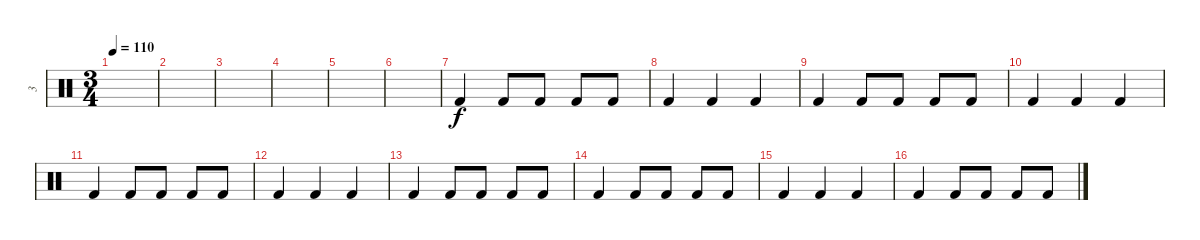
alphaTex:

\track ("3" "3") {instrument percussion}
\staff {score}
\articulation defaults
\ts (3 4)
\tempo 110
\clef neutral
\ks c
|
|
|
|
|
|
"Kick (hit) 2".4 "Kick (hit) 2".8 "Kick (hit) 2".8 "Kick (hit) 2".8 "Kick (hit) 2".8 |
"Kick (hit) 2".4 "Kick (hit) 2".4 "Kick (hit) 2".4 |
"Kick (hit) 2".4 "Kick (hit) 2".8 "Kick (hit) 2".8 "Kick (hit) 2".8 "Kick (hit) 2".8 |
"Kick (hit) 2".4 "Kick (hit) 2".4 "Kick (hit) 2".4 |
"Kick (hit) 2".4 "Kick (hit) 2".8 "Kick (hit) 2".8 "Kick (hit) 2".8 "Kick (hit) 2".8 |
"Kick (hit) 2".4 "Kick (hit) 2".4 "Kick (hit) 2".4 |
"Kick (hit) 2".4 "Kick (hit) 2".8 "Kick (hit) 2".8 "Kick (hit) 2".8 "Kick (hit) 2".8 |
"Kick (hit) 2".4 "Kick (hit) 2".8 "Kick (hit) 2".8 "Kick (hit) 2".8 "Kick (hit) 2".8 |
"Kick (hit) 2".4 "Kick (hit) 2".4 "Kick (hit) 2".4 |
"Kick (hit) 2".4 "Kick (hit) 2".8 "Kick (hit) 2".8 "Kick (hit) 2".8 "Kick (hit) 2".8
